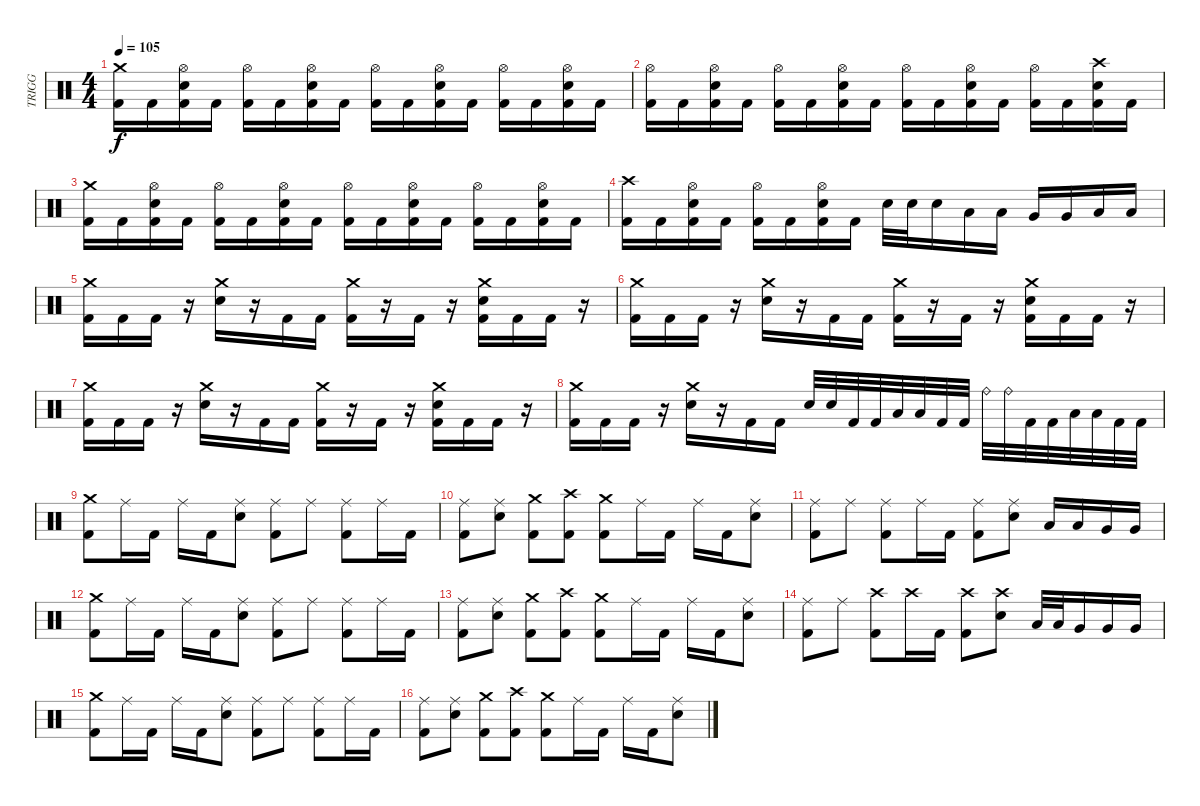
\track ("TRIGG" "TRIGG") {instrument percussion}
\staff {score}
\articulation defaults
\ts (4 4)
\tempo 105
\clef neutral
\ks c
("Crash medium (hit)" "Kick (hit) 2").16{dy f} "Kick (hit) 2".16 ("Hi-Hat (open)" "Electric Snare (hit)" "Kick (hit) 2").16 "Kick (hit) 2".16 ("Hi-Hat (open)" "Kick (hit) 2").16 "Kick (hit) 2".16 ("Hi-Hat (open)" "Electric Snare (hit)" "Kick (hit) 2").16 "Kick (hit) 2".16 ("Hi-Hat (open)" "Kick (hit) 2").16 "Kick (hit) 2".16 ("Hi-Hat (open)" "Electric Snare (hit)" "Kick (hit) 2").16 "Kick (hit) 2".16 ("Hi-Hat (open)" "Kick (hit) 2").16 "Kick (hit) 2".16 ("Hi-Hat (open)" "Electric Snare (hit)" "Kick (hit) 2").16 "Kick (hit) 2".16 |
("Hi-Hat (open)" "Kick (hit) 2").16 "Kick (hit) 2".16 ("Hi-Hat (open)" "Electric Snare (hit)" "Kick (hit) 2").16 "Kick (hit) 2".16 ("Hi-Hat (open)" "Kick (hit) 2").16 "Kick (hit) 2".16 ("Hi-Hat (open)" "Electric Snare (hit)" "Kick (hit) 2").16 "Kick (hit) 2".16 ("Hi-Hat (open)" "Kick (hit) 2").16 "Kick (hit) 2".16 ("Hi-Hat (open)" "Electric Snare (hit)" "Kick (hit) 2").16 "Kick (hit) 2".16 ("Hi-Hat (open)" "Kick (hit) 2").16 "Kick (hit) 2".16 ("Crash high (hit)" "Electric Snare (hit)" "Kick (hit) 2").16 "Kick (hit) 2".16 |
("Crash medium (hit)" "Kick (hit) 2").16 "Kick (hit) 2".16 ("Hi-Hat (open)" "Electric Snare (hit)" "Kick (hit) 2").16 "Kick (hit) 2".16 ("Hi-Hat (open)" "Kick (hit) 2").16 "Kick (hit) 2".16 ("Hi-Hat (open)" "Electric Snare (hit)" "Kick (hit) 2").16 "Kick (hit) 2".16 ("Hi-Hat (open)" "Kick (hit) 2").16 "Kick (hit) 2".16 ("Hi-Hat (open)" "Electric Snare (hit)" "Kick (hit) 2").16 "Kick (hit) 2".16 ("Hi-Hat (open)" "Kick (hit) 2").16 "Kick (hit) 2".16 ("Hi-Hat (open)" "Electric Snare (hit)" "Kick (hit) 2").16 "Kick (hit) 2".16 |
("Crash high (hit)" "Kick (hit) 2").16 "Kick (hit) 2".16 ("Hi-Hat (open)" "Electric Snare (hit)" "Kick (hit) 2").16 "Kick (hit) 2".16 ("Hi-Hat (open)" "Kick (hit) 2").16 "Kick (hit) 2".16 ("Hi-Hat (open)" "Electric Snare (hit)" "Kick (hit) 2").16 "Kick (hit) 2".16 "Electric Snare (hit)".32 "Electric Snare (hit)".32 "Electric Snare (hit)".16 "Low Tom (hit)".16 "Low Tom (hit)".16 "Very Low Tom (hit)".16 "Very Low Tom (hit)".16 "Low Floor Tom (hit)".16 "Low Floor Tom (hit)".16 |
("Crash medium (hit)" "Kick (hit) 2").16 "Kick (hit) 2".16 "Kick (hit) 2".16 r.16 ("Crash medium (hit)" "Electric Snare (hit)").16 r.16 "Kick (hit) 2".16 "Kick (hit) 2".16 ("Crash medium (hit)" "Kick (hit) 2").16 r.16 "Kick (hit) 2".16 r.16 ("Crash medium (hit)" "Electric Snare (hit)" "Kick (hit) 2").16 "Kick (hit) 2".16 "Kick (hit) 2".16 r.16 |
("Crash medium (hit)" "Kick (hit) 2").16 "Kick (hit) 2".16 "Kick (hit) 2".16 r.16 ("Crash medium (hit)" "Electric Snare (hit)").16 r.16 "Kick (hit) 2".16 "Kick (hit) 2".16 ("Crash medium (hit)" "Kick (hit) 2").16 r.16 "Kick (hit) 2".16 r.16 ("Crash medium (hit)" "Electric Snare (hit)" "Kick (hit) 2").16 "Kick (hit) 2".16 "Kick (hit) 2".16 r.16 |
("Crash medium (hit)" "Kick (hit) 2").16 "Kick (hit) 2".16 "Kick (hit) 2".16 r.16 ("Crash medium (hit)" "Electric Snare (hit)").16 r.16 "Kick (hit) 2".16 "Kick (hit) 2".16 ("Crash medium (hit)" "Kick (hit) 2").16 r.16 "Kick (hit) 2".16 r.16 ("Crash medium (hit)" "Electric Snare (hit)" "Kick (hit) 2").16 "Kick (hit) 2".16 "Kick (hit) 2".16 r.16 |
("Crash medium (hit)" "Kick (hit) 2").16 "Kick (hit) 2".16 "Kick (hit) 2".16 r.16 ("Crash medium (hit)" "Electric Snare (hit)").16 r.16 "Kick (hit) 2".16 "Kick (hit) 2".16 "Electric Snare (hit)".32 "Electric Snare (hit)".32 "Kick (hit) 2".32 "Kick (hit) 2".32 "Low Tom (hit)".32 "Low Tom (hit)".32 "Kick (hit) 2".32 "Kick (hit) 2".32 "Ride (bell)".32 "Ride (bell)".32 "Kick (hit) 2".32 "Kick (hit) 2".32 "Low Floor Tom (hit)".32 "Low Floor Tom (hit)".32 "Kick (hit) 2".32 "Kick (hit) 2".32 |
("Crash medium (hit)" "Kick (hit) 2").8 "Ride (middle)".16 "Kick (hit) 2".16 "Ride (middle)".16 "Kick (hit) 2".16 ("Ride (middle)" "Electric Snare (hit)").8 ("Ride (middle)" "Kick (hit) 2").8 "Ride (middle)".8 ("Ride (middle)" "Kick (hit) 2").8 "Ride (middle)".16 "Kick (hit) 2".16 |
("Ride (middle)" "Kick (hit) 2").8 ("Ride (middle)" "Electric Snare (hit)").8 ("Crash medium (hit)" "Kick (hit) 2").8 ("Crash high (hit)" "Kick (hit) 2").8 ("Crash medium (hit)" "Kick (hit) 2").8 "Ride (middle)".16 "Kick (hit) 2".16 "Ride (middle)".16 "Kick (hit) 2".16 ("Ride (middle)" "Electric Snare (hit)").8 |
("Ride (middle)" "Kick (hit) 2").8 "Ride (middle)".8 ("Ride (middle)" "Kick (hit) 2").8 "Ride (middle)".16 "Kick (hit) 2".16 ("Ride (middle)" "Kick (hit) 2").8 ("Ride (middle)" "Electric Snare (hit)").8 "Low Tom (hit)".16 "Low Tom (hit)".16 "Very Low Tom (hit)".16 "Very Low Tom (hit)".16 |
("Crash medium (hit)" "Kick (hit) 2").8 "Ride (middle)".16 "Kick (hit) 2".16 "Ride (middle)".16 "Kick (hit) 2".16 ("Ride (middle)" "Electric Snare (hit)").8 ("Ride (middle)" "Kick (hit) 2").8 "Ride (middle)".8 ("Ride (middle)" "Kick (hit) 2").8 "Ride (middle)".16 "Kick (hit) 2".16 |
("Ride (middle)" "Kick (hit) 2").8 ("Ride (middle)" "Electric Snare (hit)").8 ("Crash medium (hit)" "Kick (hit) 2").8 ("Crash high (hit)" "Kick (hit) 2").8 ("Crash medium (hit)" "Kick (hit) 2").8 "Ride (middle)".16 "Kick (hit) 2".16 "Ride (middle)".16 "Kick (hit) 2".16 ("Ride (middle)" "Electric Snare (hit)").8 |
("Ride (middle)" "Kick (hit) 2").8 "Ride (middle)".8 ("Crash high (hit)" "Kick (hit) 2").8 "Crash high (hit)".16 "Kick (hit) 2".16 ("Crash high (hit)" "Kick (hit) 2").8 ("Crash high (hit)" "Electric Snare (hit)").8 "Low Tom (hit)".32 "Low Tom (hit)".32 "Very Low Tom (hit)".16 "Very Low Tom (hit)".16 "Very Low Tom (hit)".16 |
("Crash medium (hit)" "Kick (hit) 2").8 "Ride (middle)".16 "Kick (hit) 2".16 "Ride (middle)".16 "Kick (hit) 2".16 ("Ride (middle)" "Electric Snare (hit)").8 ("Ride (middle)" "Kick (hit) 2").8 "Ride (middle)".8 ("Ride (middle)" "Kick (hit) 2").8 "Ride (middle)".16 "Kick (hit) 2".16 |
("Ride (middle)" "Kick (hit) 2").8 ("Ride (middle)" "Electric Snare (hit)").8 ("Crash medium (hit)" "Kick (hit) 2").8 ("Crash high (hit)" "Kick (hit) 2").8 ("Crash medium (hit)" "Kick (hit) 2").8 "Ride (middle)".16 "Kick (hit) 2".16 "Ride (middle)".16 "Kick (hit) 2".16 ("Ride (middle)" "Electric Snare (hit)").8
